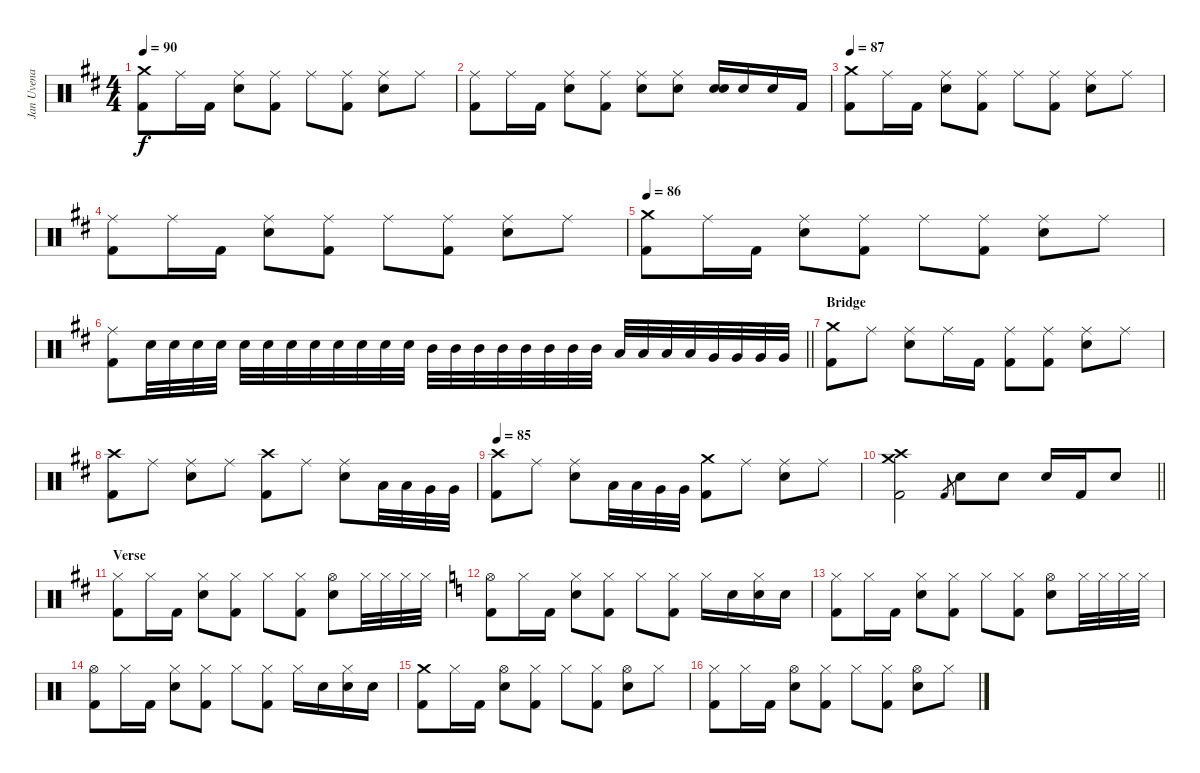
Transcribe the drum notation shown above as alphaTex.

\track ("Jan Uvena" "Jan Uvena") {instrument percussion}
\staff {score}
\articulation defaults
\ts (4 4)
\tempo 90
\clef neutral
\ks d
("Crash medium (hit)" "Kick (hit) 2").8{dy f} "Ride (middle)".16 "Kick (hit) 2".16 ("Ride (middle)" "Snare (hit) 2").8 ("Ride (middle)" "Kick (hit) 2").8 "Ride (middle)".8 ("Ride (middle)" "Kick (hit) 2").8 ("Ride (middle)" "Snare (hit) 2").8 "Ride (middle)".8 |
("Ride (middle)" "Kick (hit) 2").8 "Ride (middle)".16 "Kick (hit) 2".16 ("Ride (middle)" "Snare (hit) 2").8 ("Ride (middle)" "Kick (hit) 2").8 ("Ride (middle)" "Snare (hit) 2").8 ("Ride (middle)" "Snare (hit) 2").8 ("Snare (hit)" "Snare (hit) 2").16 "Snare (hit) 2".16 "Snare (hit) 2".16 "Kick (hit) 2".16 |
\tempo 87
("Crash medium (hit)" "Kick (hit) 2").8 "Ride (middle)".16 "Kick (hit) 2".16 ("Ride (middle)" "Snare (hit) 2").8 ("Ride (middle)" "Kick (hit) 2").8 "Ride (middle)".8 ("Ride (middle)" "Kick (hit) 2").8 ("Ride (middle)" "Snare (hit) 2").8 "Ride (middle)".8 |
("Ride (middle)" "Kick (hit) 2").8 "Ride (middle)".16 "Kick (hit) 2".16 ("Ride (middle)" "Snare (hit) 2").8 ("Ride (middle)" "Kick (hit) 2").8 "Ride (middle)".8 ("Ride (middle)" "Kick (hit) 2").8 ("Ride (middle)" "Snare (hit) 2").8 "Ride (middle)".8 |
\tempo 86
("Crash medium (hit)" "Kick (hit) 2").8 "Ride (middle)".16 "Kick (hit) 2".16 ("Ride (middle)" "Snare (hit) 2").8 ("Ride (middle)" "Kick (hit) 2").8 "Ride (middle)".8 ("Ride (middle)" "Kick (hit) 2").8 ("Ride (middle)" "Snare (hit) 2").8 "Ride (middle)".8 |
\barLineRight lightlight
("Ride (middle)" "Kick (hit) 2").8 "Snare (hit) 2".32 "Snare (hit) 2".32 "Snare (hit) 2".32 "Snare (hit) 2".32 "Snare (hit) 2".32 "Snare (hit) 2".32 "Snare (hit) 2".32 "Snare (hit) 2".32 "Snare (hit) 2".32 "Snare (hit) 2".32 "Snare (hit) 2".32 "Snare (hit) 2".32 "Mid Tom (hit)".32 "Mid Tom (hit)".32 "Mid Tom (hit)".32 "Mid Tom (hit)".32 "Mid Tom (hit)".32 "Mid Tom (hit)".32 "Mid Tom (hit)".32 "Mid Tom (hit)".32 "Low Tom (hit)".32 "Low Tom (hit)".32 "Low Tom (hit)".32 "Low Tom (hit)".32 "Very Low Tom (hit)".32 "Very Low Tom (hit)".32 "Very Low Tom (hit)".32 "Very Low Tom (hit)".32 |
\section ("" "Bridge")
("Crash medium (hit)" "Kick (hit) 2").8 "Ride (middle)".8 ("Ride (middle)" "Snare (hit) 2").8 "Ride (middle)".16 "Kick (hit) 2".16 ("Ride (middle)" "Kick (hit) 2").8 ("Ride (middle)" "Kick (hit) 2").8 ("Ride (middle)" "Snare (hit) 2").8 "Ride (middle)".8 |
("Crash high (hit)" "Kick (hit) 2").8 "Ride (middle)".8 ("Ride (middle)" "Snare (hit) 2").8 "Ride (middle)".8 ("Crash high (hit)" "Kick (hit) 2").8 "Ride (middle)".8 ("Ride (middle)" "Snare (hit) 2").8 "Low Tom (hit)".32 "Low Tom (hit)".32 "Very Low Tom (hit)".32 "Very Low Tom (hit)".32 |
\tempo 85
("Crash high (hit)" "Kick (hit) 2").8 "Ride (middle)".8 ("Ride (middle)" "Snare (hit) 2").8 "Low Tom (hit)".32 "Low Tom (hit)".32 "Very Low Tom (hit)".32 "Very Low Tom (hit)".32 ("Crash medium (hit)" "Kick (hit) 2").8 "Ride (middle)".8 ("Ride (middle)" "Snare (hit) 2").8 "Ride (middle)".8 |
\barLineRight lightlight
("Crash medium (hit)" "Crash high (hit)" "Kick (hit) 2").2 "Kick (hit) 2".8{gr} "Snare (hit) 2".8 "Snare (hit) 2".8 "Snare (hit) 2".16 "Kick (hit) 2".16 "Snare (hit) 2".8 |
\section ("" "Verse")
("Hi-Hat (closed)" "Kick (hit) 2").8 "Hi-Hat (closed)".16 "Kick (hit) 2".16 ("Hi-Hat (closed)" "Snare (hit) 2").8 ("Hi-Hat (closed)" "Kick (hit) 2").8 "Hi-Hat (closed)".8 ("Hi-Hat (closed)" "Kick (hit) 2").8 ("Hi-Hat (open)" "Snare (hit) 2").8 "Hi-Hat (closed)".32 "Hi-Hat (closed)".32 "Hi-Hat (closed)".32 "Hi-Hat (closed)".32 |
\ks c
("Hi-Hat (open)" "Kick (hit) 2").8 "Hi-Hat (closed)".16 "Kick (hit) 2".16 ("Hi-Hat (closed)" "Snare (hit) 2").8 ("Hi-Hat (closed)" "Kick (hit) 2").8 "Hi-Hat (closed)".8 ("Hi-Hat (closed)" "Kick (hit) 2").8 "Hi-Hat (closed)".16 "Snare (hit) 2".16 ("Hi-Hat (closed)" "Snare (hit) 2").16 "Snare (hit) 2".16 |
("Hi-Hat (closed)" "Kick (hit) 2").8 "Hi-Hat (closed)".16 "Kick (hit) 2".16 ("Hi-Hat (closed)" "Snare (hit) 2").8 ("Hi-Hat (closed)" "Kick (hit) 2").8 "Hi-Hat (closed)".8 ("Hi-Hat (closed)" "Kick (hit) 2").8 ("Hi-Hat (open)" "Snare (hit) 2").8 "Hi-Hat (closed)".32 "Hi-Hat (closed)".32 "Hi-Hat (closed)".32 "Hi-Hat (closed)".32 |
("Hi-Hat (open)" "Kick (hit) 2").8 "Hi-Hat (closed)".16 "Kick (hit) 2".16 ("Hi-Hat (closed)" "Snare (hit) 2").8 ("Hi-Hat (closed)" "Kick (hit) 2").8 "Hi-Hat (closed)".8 ("Hi-Hat (closed)" "Kick (hit) 2").8 "Hi-Hat (closed)".16 "Snare (hit) 2".16 ("Hi-Hat (closed)" "Snare (hit) 2").16 "Snare (hit) 2".16 |
("Crash medium (hit)" "Kick (hit) 2").8 "Hi-Hat (closed)".16 "Kick (hit) 2".16 ("Hi-Hat (open)" "Snare (hit) 2").8 ("Hi-Hat (closed)" "Kick (hit) 2").8 "Hi-Hat (closed)".8 ("Hi-Hat (closed)" "Kick (hit) 2").8 ("Hi-Hat (open)" "Snare (hit) 2").8 "Hi-Hat (closed)".8 |
("Hi-Hat (closed)" "Kick (hit) 2").8 "Hi-Hat (closed)".16 "Kick (hit) 2".16 ("Hi-Hat (open)" "Snare (hit) 2").8 ("Hi-Hat (closed)" "Kick (hit) 2").8 "Hi-Hat (closed)".8 ("Hi-Hat (closed)" "Kick (hit) 2").8 ("Hi-Hat (open)" "Snare (hit) 2").8 "Hi-Hat (closed)".8
